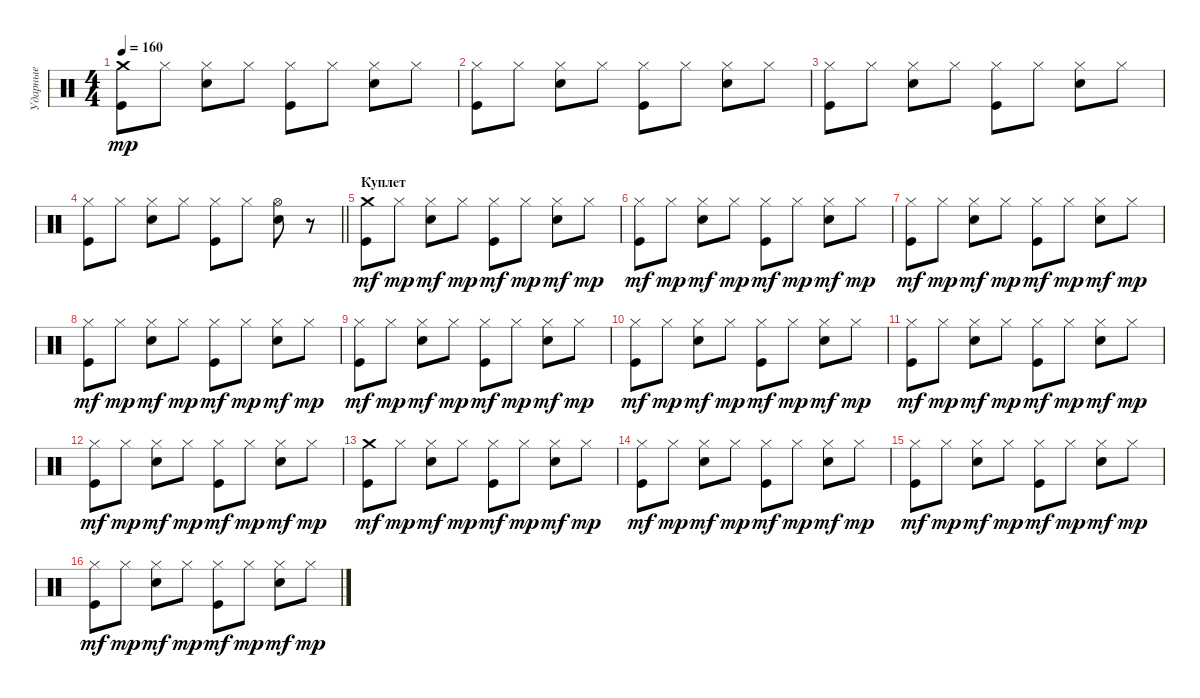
\track ("Ударные" "Ударные") {instrument percussion}
\staff {score}
\articulation defaults
\ts (4 4)
\tempo 160
\clef neutral
\ks c
("Crash medium (hit)" "Kick (hit)").8{dy mp} "Hi-Hat (closed)".8 ("Hi-Hat (closed)" "Electric Snare (hit)").8 "Hi-Hat (closed)".8 ("Hi-Hat (closed)" "Kick (hit)").8 "Hi-Hat (closed)".8 ("Hi-Hat (closed)" "Electric Snare (hit)").8 "Hi-Hat (closed)".8 |
("Hi-Hat (closed)" "Kick (hit)").8 "Hi-Hat (closed)".8 ("Hi-Hat (closed)" "Electric Snare (hit)").8 "Hi-Hat (closed)".8 ("Hi-Hat (closed)" "Kick (hit)").8 "Hi-Hat (closed)".8 ("Hi-Hat (closed)" "Electric Snare (hit)").8 "Hi-Hat (closed)".8 |
("Hi-Hat (closed)" "Kick (hit)").8 "Hi-Hat (closed)".8 ("Hi-Hat (closed)" "Electric Snare (hit)").8 "Hi-Hat (closed)".8 ("Hi-Hat (closed)" "Kick (hit)").8 "Hi-Hat (closed)".8 ("Hi-Hat (closed)" "Electric Snare (hit)").8 "Hi-Hat (closed)".8 |
\barLineRight lightlight
("Hi-Hat (closed)" "Kick (hit)").8 "Hi-Hat (closed)".8 ("Hi-Hat (closed)" "Electric Snare (hit)").8 "Hi-Hat (closed)".8 ("Hi-Hat (closed)" "Kick (hit)").8 "Hi-Hat (closed)".8 ("Hi-Hat (open)" "Electric Snare (hit)").8 r.8 |
\section ("" "Куплет")
("Crash medium (hit)" "Kick (hit)").8{dy mf} "Hi-Hat (closed)".8{dy mp} ("Hi-Hat (closed)" "Electric Snare (hit)").8{dy mf} "Hi-Hat (closed)".8{dy mp} ("Hi-Hat (closed)" "Kick (hit)").8{dy mf} "Hi-Hat (closed)".8{dy mp} ("Hi-Hat (closed)" "Electric Snare (hit)").8{dy mf} "Hi-Hat (closed)".8{dy mp} |
("Hi-Hat (closed)" "Kick (hit)").8{dy mf} "Hi-Hat (closed)".8{dy mp} ("Hi-Hat (closed)" "Electric Snare (hit)").8{dy mf} "Hi-Hat (closed)".8{dy mp} ("Hi-Hat (closed)" "Kick (hit)").8{dy mf} "Hi-Hat (closed)".8{dy mp} ("Hi-Hat (closed)" "Electric Snare (hit)").8{dy mf} "Hi-Hat (closed)".8{dy mp} |
("Hi-Hat (closed)" "Kick (hit)").8{dy mf} "Hi-Hat (closed)".8{dy mp} ("Hi-Hat (closed)" "Electric Snare (hit)").8{dy mf} "Hi-Hat (closed)".8{dy mp} ("Hi-Hat (closed)" "Kick (hit)").8{dy mf} "Hi-Hat (closed)".8{dy mp} ("Hi-Hat (closed)" "Electric Snare (hit)").8{dy mf} "Hi-Hat (closed)".8{dy mp} |
("Hi-Hat (closed)" "Kick (hit)").8{dy mf} "Hi-Hat (closed)".8{dy mp} ("Hi-Hat (closed)" "Electric Snare (hit)").8{dy mf} "Hi-Hat (closed)".8{dy mp} ("Hi-Hat (closed)" "Kick (hit)").8{dy mf} "Hi-Hat (closed)".8{dy mp} ("Hi-Hat (closed)" "Electric Snare (hit)").8{dy mf} "Hi-Hat (closed)".8{dy mp} |
("Hi-Hat (closed)" "Kick (hit)").8{dy mf} "Hi-Hat (closed)".8{dy mp} ("Hi-Hat (closed)" "Electric Snare (hit)").8{dy mf} "Hi-Hat (closed)".8{dy mp} ("Hi-Hat (closed)" "Kick (hit)").8{dy mf} "Hi-Hat (closed)".8{dy mp} ("Hi-Hat (closed)" "Electric Snare (hit)").8{dy mf} "Hi-Hat (closed)".8{dy mp} |
("Hi-Hat (closed)" "Kick (hit)").8{dy mf} "Hi-Hat (closed)".8{dy mp} ("Hi-Hat (closed)" "Electric Snare (hit)").8{dy mf} "Hi-Hat (closed)".8{dy mp} ("Hi-Hat (closed)" "Kick (hit)").8{dy mf} "Hi-Hat (closed)".8{dy mp} ("Hi-Hat (closed)" "Electric Snare (hit)").8{dy mf} "Hi-Hat (closed)".8{dy mp} |
("Hi-Hat (closed)" "Kick (hit)").8{dy mf} "Hi-Hat (closed)".8{dy mp} ("Hi-Hat (closed)" "Electric Snare (hit)").8{dy mf} "Hi-Hat (closed)".8{dy mp} ("Hi-Hat (closed)" "Kick (hit)").8{dy mf} "Hi-Hat (closed)".8{dy mp} ("Hi-Hat (closed)" "Electric Snare (hit)").8{dy mf} "Hi-Hat (closed)".8{dy mp} |
("Hi-Hat (closed)" "Kick (hit)").8{dy mf} "Hi-Hat (closed)".8{dy mp} ("Hi-Hat (closed)" "Electric Snare (hit)").8{dy mf} "Hi-Hat (closed)".8{dy mp} ("Hi-Hat (closed)" "Kick (hit)").8{dy mf} "Hi-Hat (closed)".8{dy mp} ("Hi-Hat (closed)" "Electric Snare (hit)").8{dy mf} "Hi-Hat (closed)".8{dy mp} |
("Crash medium (hit)" "Kick (hit)").8{dy mf} "Hi-Hat (closed)".8{dy mp} ("Hi-Hat (closed)" "Electric Snare (hit)").8{dy mf} "Hi-Hat (closed)".8{dy mp} ("Hi-Hat (closed)" "Kick (hit)").8{dy mf} "Hi-Hat (closed)".8{dy mp} ("Hi-Hat (closed)" "Electric Snare (hit)").8{dy mf} "Hi-Hat (closed)".8{dy mp} |
("Hi-Hat (closed)" "Kick (hit)").8{dy mf} "Hi-Hat (closed)".8{dy mp} ("Hi-Hat (closed)" "Electric Snare (hit)").8{dy mf} "Hi-Hat (closed)".8{dy mp} ("Hi-Hat (closed)" "Kick (hit)").8{dy mf} "Hi-Hat (closed)".8{dy mp} ("Hi-Hat (closed)" "Electric Snare (hit)").8{dy mf} "Hi-Hat (closed)".8{dy mp} |
("Hi-Hat (closed)" "Kick (hit)").8{dy mf} "Hi-Hat (closed)".8{dy mp} ("Hi-Hat (closed)" "Electric Snare (hit)").8{dy mf} "Hi-Hat (closed)".8{dy mp} ("Hi-Hat (closed)" "Kick (hit)").8{dy mf} "Hi-Hat (closed)".8{dy mp} ("Hi-Hat (closed)" "Electric Snare (hit)").8{dy mf} "Hi-Hat (closed)".8{dy mp} |
("Hi-Hat (closed)" "Kick (hit)").8{dy mf} "Hi-Hat (closed)".8{dy mp} ("Hi-Hat (closed)" "Electric Snare (hit)").8{dy mf} "Hi-Hat (closed)".8{dy mp} ("Hi-Hat (closed)" "Kick (hit)").8{dy mf} "Hi-Hat (closed)".8{dy mp} ("Hi-Hat (closed)" "Electric Snare (hit)").8{dy mf} "Hi-Hat (closed)".8{dy mp}
